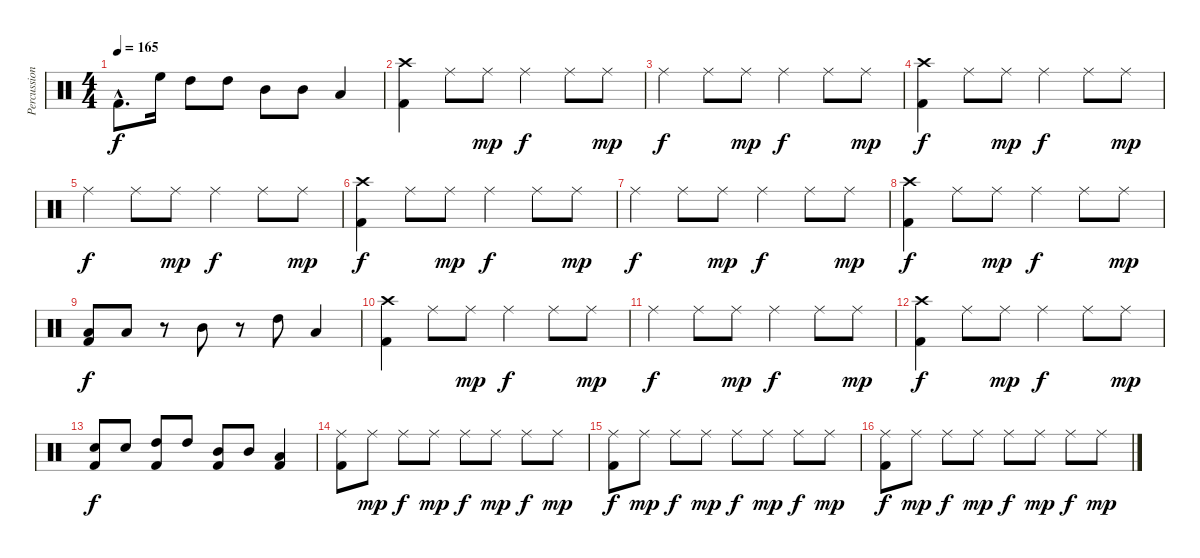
\track ("Percussion" "Percussion") {instrument percussion}
\staff {score}
\articulation defaults
\ts (4 4)
\tempo 165
\clef neutral
\ks c "Kick (hit) 2"{hac}.8{d dy f} "High Floor Tom (hit)".16 "High Tom (hit)".8 "High Tom (hit)".8 "Mid Tom (hit)".8 "Mid Tom (hit)".8 "Low Tom (hit)".4
|
("Crash high (hit)" "Kick (hit) 2").4 "Ride (middle)".8 "Ride (middle)".8{dy mp} "Ride (middle)".4{dy f} "Ride (middle)".8 "Ride (middle)".8{dy mp} |
"Ride (middle)".4{dy f} "Ride (middle)".8 "Ride (middle)".8{dy mp} "Ride (middle)".4{dy f} "Ride (middle)".8 "Ride (middle)".8{dy mp} |
("Crash high (hit)" "Kick (hit) 2").4{dy f} "Ride (middle)".8 "Ride (middle)".8{dy mp} "Ride (middle)".4{dy f} "Ride (middle)".8 "Ride (middle)".8{dy mp} |
"Ride (middle)".4{dy f} "Ride (middle)".8 "Ride (middle)".8{dy mp} "Ride (middle)".4{dy f} "Ride (middle)".8 "Ride (middle)".8{dy mp} |
("Crash high (hit)" "Kick (hit) 2").4{dy f} "Ride (middle)".8 "Ride (middle)".8{dy mp} "Ride (middle)".4{dy f} "Ride (middle)".8 "Ride (middle)".8{dy mp} |
"Ride (middle)".4{dy f} "Ride (middle)".8 "Ride (middle)".8{dy mp} "Ride (middle)".4{dy f} "Ride (middle)".8 "Ride (middle)".8{dy mp} |
("Crash high (hit)" "Kick (hit) 2").4{dy f} "Ride (middle)".8 "Ride (middle)".8{dy mp} "Ride (middle)".4{dy f} "Ride (middle)".8 "Ride (middle)".8{dy mp} |
("Low Tom (hit)" "Kick (hit) 2").8{dy f} "Low Tom (hit)".8 r.8 "Mid Tom (hit)".8 r.8 "High Tom (hit)".8 "Low Tom (hit)".4 |
("Crash high (hit)" "Kick (hit) 2").4 "Ride (middle)".8 "Ride (middle)".8{dy mp} "Ride (middle)".4{dy f} "Ride (middle)".8 "Ride (middle)".8{dy mp} |
"Ride (middle)".4{dy f} "Ride (middle)".8 "Ride (middle)".8{dy mp} "Ride (middle)".4{dy f} "Ride (middle)".8 "Ride (middle)".8{dy mp} |
("Crash high (hit)" "Kick (hit) 2").4{dy f} "Ride (middle)".8 "Ride (middle)".8{dy mp} "Ride (middle)".4{dy f} "Ride (middle)".8 "Ride (middle)".8{dy mp} |
("Snare (hit) 2" "Kick (hit) 2").8{dy f} "Snare (hit) 2".8 ("High Tom (hit)" "Kick (hit) 2").8 "High Tom (hit)".8 ("Mid Tom (hit)" "Kick (hit) 2").8 "Mid Tom (hit)".8 ("Low Tom (hit)" "Kick (hit) 2").4 |
("Ride (middle)" "Kick (hit) 2").8 "Ride (middle)".8{dy mp} "Ride (middle)".8{dy f} "Ride (middle)".8{dy mp} "Ride (middle)".8{dy f} "Ride (middle)".8{dy mp} "Ride (middle)".8{dy f} "Ride (middle)".8{dy mp} |
("Ride (middle)" "Kick (hit) 2").8{dy f} "Ride (middle)".8{dy mp} "Ride (middle)".8{dy f} "Ride (middle)".8{dy mp} "Ride (middle)".8{dy f} "Ride (middle)".8{dy mp} "Ride (middle)".8{dy f} "Ride (middle)".8{dy mp} |
("Ride (middle)" "Kick (hit) 2").8{dy f} "Ride (middle)".8{dy mp} "Ride (middle)".8{dy f} "Ride (middle)".8{dy mp} "Ride (middle)".8{dy f} "Ride (middle)".8{dy mp} "Ride (middle)".8{dy f} "Ride (middle)".8{dy mp}
